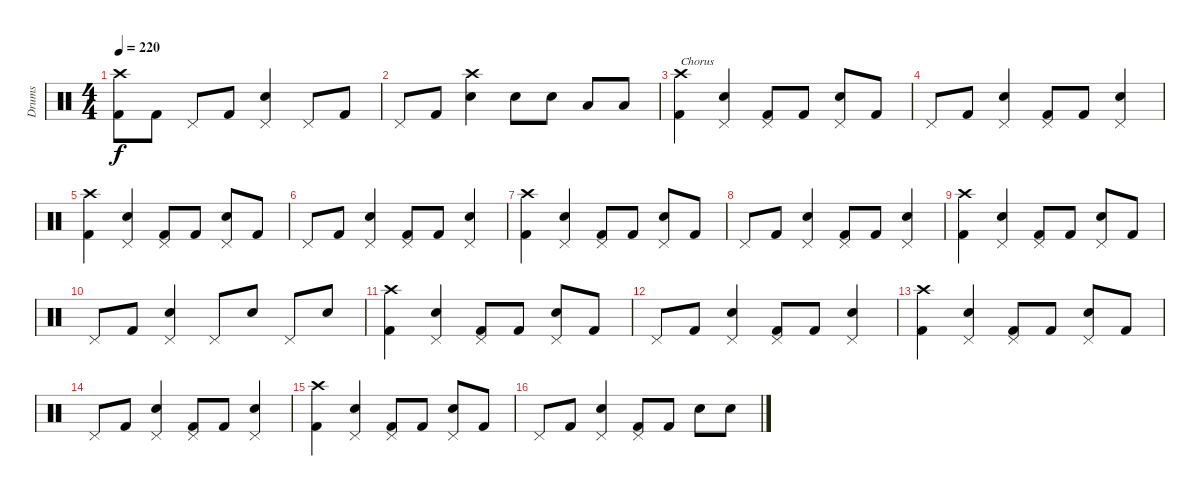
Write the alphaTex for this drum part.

\track ("Drums" "Drums") {instrument percussion}
\staff {score}
\articulation defaults
\ts (4 4)
\tempo 220
\clef neutral
\ks c
("Crash high (hit)" "Kick (hit) 2").8{dy f} "Kick (hit) 2".8 "Pedal Hi-Hat (hit)".8 "Kick (hit) 2".8 ("Pedal Hi-Hat (hit)" "Snare (hit) 2").4 "Pedal Hi-Hat (hit)".8 "Kick (hit) 2".8 |
"Pedal Hi-Hat (hit)".8 "Kick (hit) 2".8 ("Crash high (hit)" "Snare (hit) 2").4 "Snare (hit) 2".8 "Snare (hit) 2".8 "Low Tom (hit)".8 "Low Tom (hit)".8 |
("Crash high (hit)" "Kick (hit) 2").4{txt "Chorus"} ("Pedal Hi-Hat (hit)" "Snare (hit) 2").4 ("Pedal Hi-Hat (hit)" "Kick (hit) 2").8 "Kick (hit) 2".8 ("Pedal Hi-Hat (hit)" "Snare (hit) 2").8 "Kick (hit) 2".8 |
"Pedal Hi-Hat (hit)".8 "Kick (hit) 2".8 ("Pedal Hi-Hat (hit)" "Snare (hit) 2").4 ("Pedal Hi-Hat (hit)" "Kick (hit) 2").8 "Kick (hit) 2".8 ("Pedal Hi-Hat (hit)" "Snare (hit) 2").4 |
("Crash high (hit)" "Kick (hit) 2").4 ("Pedal Hi-Hat (hit)" "Snare (hit) 2").4 ("Pedal Hi-Hat (hit)" "Kick (hit) 2").8 "Kick (hit) 2".8 ("Pedal Hi-Hat (hit)" "Snare (hit) 2").8 "Kick (hit) 2".8 |
"Pedal Hi-Hat (hit)".8 "Kick (hit) 2".8 ("Pedal Hi-Hat (hit)" "Snare (hit) 2").4 ("Pedal Hi-Hat (hit)" "Kick (hit) 2").8 "Kick (hit) 2".8 ("Pedal Hi-Hat (hit)" "Snare (hit) 2").4 |
("Crash high (hit)" "Kick (hit) 2").4 ("Pedal Hi-Hat (hit)" "Snare (hit) 2").4 ("Pedal Hi-Hat (hit)" "Kick (hit) 2").8 "Kick (hit) 2".8 ("Pedal Hi-Hat (hit)" "Snare (hit) 2").8 "Kick (hit) 2".8 |
"Pedal Hi-Hat (hit)".8 "Kick (hit) 2".8 ("Pedal Hi-Hat (hit)" "Snare (hit) 2").4 ("Pedal Hi-Hat (hit)" "Kick (hit) 2").8 "Kick (hit) 2".8 ("Pedal Hi-Hat (hit)" "Snare (hit) 2").4 |
("Crash high (hit)" "Kick (hit) 2").4 ("Pedal Hi-Hat (hit)" "Snare (hit) 2").4 ("Pedal Hi-Hat (hit)" "Kick (hit) 2").8 "Kick (hit) 2".8 ("Pedal Hi-Hat (hit)" "Snare (hit) 2").8 "Kick (hit) 2".8 |
"Pedal Hi-Hat (hit)".8 "Kick (hit) 2".8 ("Pedal Hi-Hat (hit)" "Snare (hit) 2").4 "Pedal Hi-Hat (hit)".8 "Snare (hit) 2".8 "Pedal Hi-Hat (hit)".8 "Snare (hit) 2".8 |
("Crash high (hit)" "Kick (hit) 2").4 ("Pedal Hi-Hat (hit)" "Snare (hit) 2").4 ("Pedal Hi-Hat (hit)" "Kick (hit) 2").8 "Kick (hit) 2".8 ("Pedal Hi-Hat (hit)" "Snare (hit) 2").8 "Kick (hit) 2".8 |
"Pedal Hi-Hat (hit)".8 "Kick (hit) 2".8 ("Pedal Hi-Hat (hit)" "Snare (hit) 2").4 ("Pedal Hi-Hat (hit)" "Kick (hit) 2").8 "Kick (hit) 2".8 ("Pedal Hi-Hat (hit)" "Snare (hit) 2").4 |
("Crash high (hit)" "Kick (hit) 2").4 ("Pedal Hi-Hat (hit)" "Snare (hit) 2").4 ("Pedal Hi-Hat (hit)" "Kick (hit) 2").8 "Kick (hit) 2".8 ("Pedal Hi-Hat (hit)" "Snare (hit) 2").8 "Kick (hit) 2".8 |
"Pedal Hi-Hat (hit)".8 "Kick (hit) 2".8 ("Pedal Hi-Hat (hit)" "Snare (hit) 2").4 ("Pedal Hi-Hat (hit)" "Kick (hit) 2").8 "Kick (hit) 2".8 ("Pedal Hi-Hat (hit)" "Snare (hit) 2").4 |
("Crash high (hit)" "Kick (hit) 2").4 ("Pedal Hi-Hat (hit)" "Snare (hit) 2").4 ("Pedal Hi-Hat (hit)" "Kick (hit) 2").8 "Kick (hit) 2".8 ("Pedal Hi-Hat (hit)" "Snare (hit) 2").8 "Kick (hit) 2".8 |
"Pedal Hi-Hat (hit)".8 "Kick (hit) 2".8 ("Pedal Hi-Hat (hit)" "Snare (hit) 2").4 ("Pedal Hi-Hat (hit)" "Kick (hit) 2").8 "Kick (hit) 2".8 "Snare (hit) 2".8 "Snare (hit) 2".8
